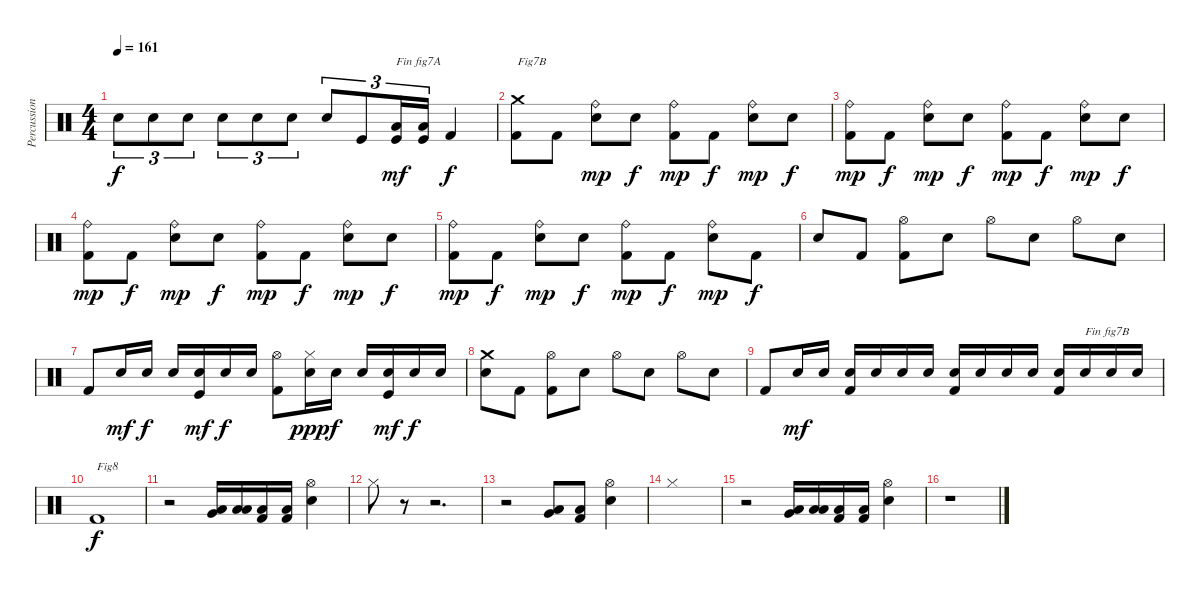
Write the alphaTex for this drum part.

\track ("Percussions" "Percussion") {instrument percussion}
\staff {score}
\articulation defaults
\ts (4 4)
\tempo 161
\clef neutral
\ks c "Electric Snare (hit)".8{tu (3 2) dy f} "Electric Snare (hit)".8{tu (3 2)} "Electric Snare (hit)".8{tu (3 2)} "Electric Snare (hit)".8{tu (3 2)} "Electric Snare (hit)".8{tu (3 2)} "Electric Snare (hit)".8{tu (3 2)} "Electric Snare (hit)".8{tu (3 2)} "Kick (hit)".8{tu (3 2)}
("Low Floor Tom (hit)" "Kick (hit)").16{tu (3 2) txt "Fin fig7A" dy mf} ("Low Floor Tom (hit)" "Kick (hit)").16{tu (3 2)} "Kick (hit) 2".4{dy f} |
("Kick (hit) 2" "Crash medium (hit)").8{txt "Fig7B"} "Kick (hit) 2".8 ("Electric Snare (hit)" "Ride (bell)").8{dy mp} "Electric Snare (hit)".8{dy f} ("Kick (hit) 2" "Ride (bell)").8{dy mp} "Kick (hit) 2".8{dy f} ("Electric Snare (hit)" "Ride (bell)").8{dy mp} "Electric Snare (hit)".8{dy f} |
("Kick (hit) 2" "Ride (bell)").8{dy mp} "Kick (hit) 2".8{dy f} ("Electric Snare (hit)" "Ride (bell)").8{dy mp} "Electric Snare (hit)".8{dy f} ("Kick (hit) 2" "Ride (bell)").8{dy mp} "Kick (hit) 2".8{dy f} ("Electric Snare (hit)" "Ride (bell)").8{dy mp} "Electric Snare (hit)".8{dy f} |
("Kick (hit) 2" "Ride (bell)").8{dy mp} "Kick (hit) 2".8{dy f} ("Electric Snare (hit)" "Ride (bell)").8{dy mp} "Electric Snare (hit)".8{dy f} ("Kick (hit) 2" "Ride (bell)").8{dy mp} "Kick (hit) 2".8{dy f} ("Electric Snare (hit)" "Ride (bell)").8{dy mp} "Electric Snare (hit)".8{dy f} |
("Kick (hit) 2" "Ride (bell)").8{dy mp} "Kick (hit) 2".8{dy f} ("Electric Snare (hit)" "Ride (bell)").8{dy mp} "Electric Snare (hit)".8{dy f} ("Kick (hit) 2" "Ride (bell)").8{dy mp} "Kick (hit) 2".8{dy f} ("Electric Snare (hit)" "Ride (bell)").8{dy mp} "Kick (hit) 2".8{dy f} |
"Electric Snare (hit)".8 "Kick (hit) 2".8 ("Kick (hit) 2" "Hi-Hat (open)").8 "Electric Snare (hit)".8 "Hi-Hat (open)".8 "Electric Snare (hit)".8 "Hi-Hat (open)".8 "Electric Snare (hit)".8 |
"Kick (hit) 2".8 "Electric Snare (hit)".16{dy mf} "Electric Snare (hit)".16{dy f} "Electric Snare (hit)".16 ("Electric Snare (hit)" "Kick (hit)").16{dy mf} "Electric Snare (hit)".16{dy f} "Electric Snare (hit)".16 ("Kick (hit) 2" "Hi-Hat (open)").8 ("Electric Snare (hit)" "Hi-Hat (closed)").16{dy ppp} "Electric Snare (hit)".16{dy f} "Electric Snare (hit)".16 ("Electric Snare (hit)" "Kick (hit)").16{dy mf} "Electric Snare (hit)".16{dy f} "Electric Snare (hit)".16 |
("Electric Snare (hit)" "Crash medium (hit)").8 "Kick (hit) 2".8 ("Kick (hit) 2" "Hi-Hat (open)").8 "Electric Snare (hit)".8 "Hi-Hat (open)".8 "Electric Snare (hit)".8 "Hi-Hat (open)".8 "Electric Snare (hit)".8 |
"Kick (hit) 2".8 "Electric Snare (hit)".16{dy mf} "Electric Snare (hit)".16 ("Kick (hit) 2" "Electric Snare (hit)").16 "Electric Snare (hit)".16 "Electric Snare (hit)".16 "Electric Snare (hit)".16 ("Kick (hit) 2" "Electric Snare (hit)").16 "Electric Snare (hit)".16 "Electric Snare (hit)".16 "Electric Snare (hit)".16 ("Kick (hit) 2" "Electric Snare (hit)").16 "Electric Snare (hit)".16{txt "Fin fig7B"} "Electric Snare (hit)".16 "Electric Snare (hit)".16 |
"Kick (hit) 2".1{txt "Fig8" dy f} |
r.2 ("Low Tom (hit)" "Very Low Tom (hit)").16 ("Low Floor Tom (hit)" "Low Tom (hit)").16 ("Kick (hit) 2" "Low Floor Tom (hit)").16 ("Kick (hit) 2" "Low Floor Tom (hit)").16 ("Electric Snare (hit)" "Hi-Hat (open)").4 |
"Hi-Hat (closed)".8 r.8 r.2{d} |
r.2 ("Low Tom (hit)" "Very Low Tom (hit)").8 ("Kick (hit) 2" "Low Floor Tom (hit)").8 ("Electric Snare (hit)" "Hi-Hat (open)").4 |
"Hi-Hat (closed)".1 |
r.2 ("Low Tom (hit)" "Very Low Tom (hit)").16 ("Low Floor Tom (hit)" "Low Tom (hit)").16 ("Kick (hit) 2" "Low Floor Tom (hit)").16 ("Kick (hit) 2" "Low Floor Tom (hit)").16 ("Electric Snare (hit)" "Hi-Hat (open)").4 |
r.1
